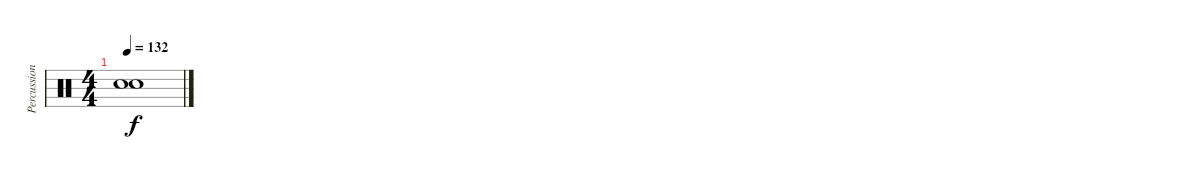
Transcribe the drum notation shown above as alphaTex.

\track ("Percussion" "Percussion") {instrument percussion}
\staff {score}
\articulation defaults
\ts (4 4)
\tempo 132
\clef neutral
\ks c
("Snare (hit)"{t} "Snare (hit)"{t}).1{dy f}
